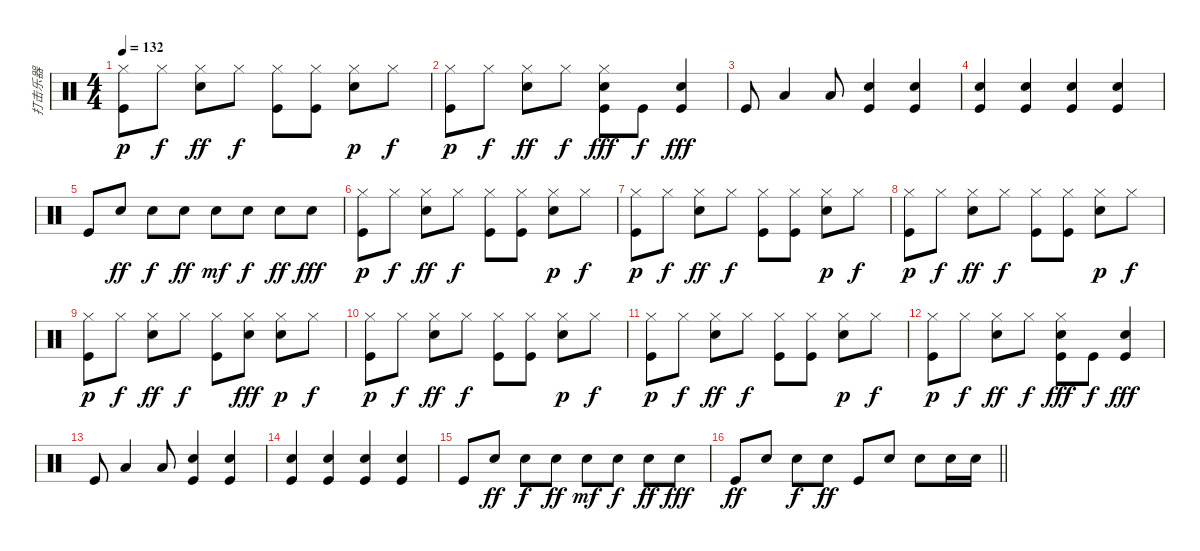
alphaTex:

\track ("打击乐器" "打击乐器") {instrument percussion}
\staff {score}
\articulation defaults
\ts (4 4)
\tempo 132
\clef neutral
\ks c
("Hi-Hat (closed)" "Kick (hit)").8{dy p} "Hi-Hat (closed)".8{dy f} ("Hi-Hat (closed)" "Snare (hit) 2").8{dy ff} "Hi-Hat (closed)".8{dy f} ("Hi-Hat (closed)" "Kick (hit)").8 ("Hi-Hat (closed)" "Kick (hit)").8 ("Hi-Hat (closed)" "Snare (hit) 2").8{dy p} "Hi-Hat (closed)".8{dy f} |
("Hi-Hat (closed)" "Kick (hit)").8{dy p} "Hi-Hat (closed)".8{dy f} ("Hi-Hat (closed)" "Snare (hit) 2").8{dy ff} "Hi-Hat (closed)".8{dy f} ("Snare (hit) 2" "Hi-Hat (closed)" "Kick (hit)").8{dy fff} "Kick (hit)".8{dy f} ("Snare (hit) 2" "Kick (hit)").4{dy fff} |
"Kick (hit)".8 "Low Floor Tom (hit)".4 "Low Floor Tom (hit)".8 ("Snare (hit) 2" "Kick (hit)").4 ("Snare (hit) 2" "Kick (hit)").4 |
("Snare (hit) 2" "Kick (hit)").4 ("Snare (hit) 2" "Kick (hit)").4 ("Snare (hit) 2" "Kick (hit)").4 ("Snare (hit) 2" "Kick (hit)").4 |
"Kick (hit)".8 "Snare (hit) 2".8{dy ff} "Snare (hit) 2".8{dy f} "Snare (hit) 2".8{dy ff} "Snare (hit) 2".8{dy mf} "Snare (hit) 2".8{dy f} "Snare (hit) 2".8{dy ff} "Snare (hit) 2".8{dy fff} |
("Hi-Hat (closed)" "Kick (hit)").8{dy p} "Hi-Hat (closed)".8{dy f} ("Hi-Hat (closed)" "Snare (hit) 2").8{dy ff} "Hi-Hat (closed)".8{dy f} ("Hi-Hat (closed)" "Kick (hit)").8 ("Hi-Hat (closed)" "Kick (hit)").8 ("Hi-Hat (closed)" "Snare (hit) 2").8{dy p} "Hi-Hat (closed)".8{dy f} |
("Hi-Hat (closed)" "Kick (hit)").8{dy p} "Hi-Hat (closed)".8{dy f} ("Hi-Hat (closed)" "Snare (hit) 2").8{dy ff} "Hi-Hat (closed)".8{dy f} ("Hi-Hat (closed)" "Kick (hit)").8 ("Hi-Hat (closed)" "Kick (hit)").8 ("Hi-Hat (closed)" "Snare (hit) 2").8{dy p} "Hi-Hat (closed)".8{dy f} |
("Hi-Hat (closed)" "Kick (hit)").8{dy p} "Hi-Hat (closed)".8{dy f} ("Hi-Hat (closed)" "Snare (hit) 2").8{dy ff} "Hi-Hat (closed)".8{dy f} ("Hi-Hat (closed)" "Kick (hit)").8 ("Hi-Hat (closed)" "Kick (hit)").8 ("Hi-Hat (closed)" "Snare (hit) 2").8{dy p} "Hi-Hat (closed)".8{dy f} |
("Hi-Hat (closed)" "Kick (hit)").8{dy p} "Hi-Hat (closed)".8{dy f} ("Hi-Hat (closed)" "Snare (hit) 2").8{dy ff} "Hi-Hat (closed)".8{dy f} ("Hi-Hat (closed)" "Kick (hit)").8 ("Snare (hit) 2" "Hi-Hat (closed)").8{dy fff} ("Hi-Hat (closed)" "Snare (hit) 2").8{dy p} "Hi-Hat (closed)".8{dy f} |
("Hi-Hat (closed)" "Kick (hit)").8{dy p} "Hi-Hat (closed)".8{dy f} ("Hi-Hat (closed)" "Snare (hit) 2").8{dy ff} "Hi-Hat (closed)".8{dy f} ("Hi-Hat (closed)" "Kick (hit)").8 ("Hi-Hat (closed)" "Kick (hit)").8 ("Hi-Hat (closed)" "Snare (hit) 2").8{dy p} "Hi-Hat (closed)".8{dy f} |
("Hi-Hat (closed)" "Kick (hit)").8{dy p} "Hi-Hat (closed)".8{dy f} ("Hi-Hat (closed)" "Snare (hit) 2").8{dy ff} "Hi-Hat (closed)".8{dy f} ("Hi-Hat (closed)" "Kick (hit)").8 ("Hi-Hat (closed)" "Kick (hit)").8 ("Hi-Hat (closed)" "Snare (hit) 2").8{dy p} "Hi-Hat (closed)".8{dy f} |
("Hi-Hat (closed)" "Kick (hit)").8{dy p} "Hi-Hat (closed)".8{dy f} ("Hi-Hat (closed)" "Snare (hit) 2").8{dy ff} "Hi-Hat (closed)".8{dy f} ("Snare (hit) 2" "Hi-Hat (closed)" "Kick (hit)").8{dy fff} "Kick (hit)".8{dy f} ("Snare (hit) 2" "Kick (hit)").4{dy fff} |
"Kick (hit)".8 "Low Floor Tom (hit)".4 "Low Floor Tom (hit)".8 ("Snare (hit) 2" "Kick (hit)").4 ("Snare (hit) 2" "Kick (hit)").4 |
("Snare (hit) 2" "Kick (hit)").4 ("Snare (hit) 2" "Kick (hit)").4 ("Snare (hit) 2" "Kick (hit)").4 ("Snare (hit) 2" "Kick (hit)").4 |
"Kick (hit)".8 "Snare (hit) 2".8{dy ff} "Snare (hit) 2".8{dy f} "Snare (hit) 2".8{dy ff} "Snare (hit) 2".8{dy mf} "Snare (hit) 2".8{dy f} "Snare (hit) 2".8{dy ff} "Snare (hit) 2".8{dy fff} |
\barLineRight lightlight "Kick (hit)".8{dy ff} "Snare (hit) 2".8 "Snare (hit) 2".8{dy f} "Snare (hit) 2".8{dy ff} "Kick (hit)".8 "Snare (hit) 2".8 "Snare (hit) 2".8 "Snare (hit) 2".16 "Snare (hit) 2".16
